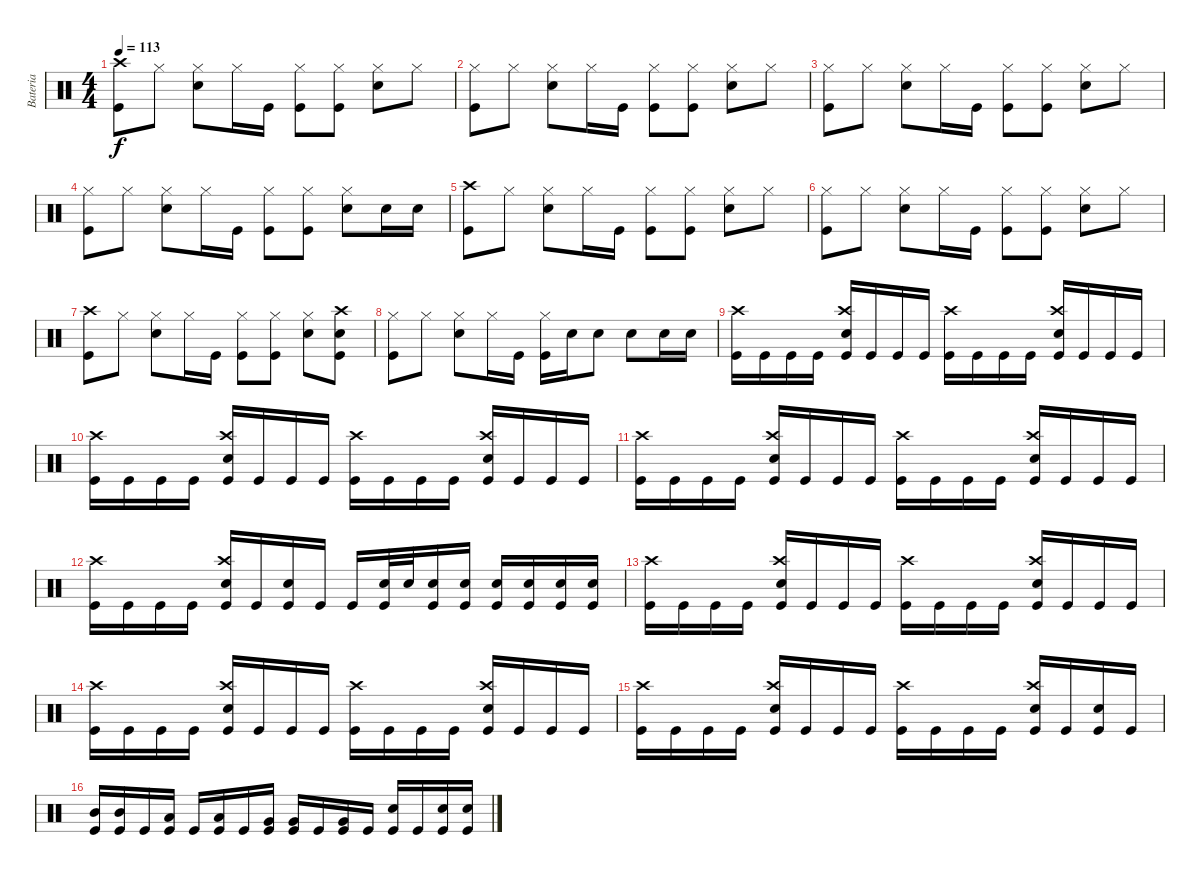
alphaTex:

\track ("Bateria" "Bateria") {instrument percussion}
\staff {score}
\articulation defaults
\ts (4 4)
\tempo 113
\clef neutral
\ks c
("Kick (hit)" "Crash high (hit)").8{dy f} "Hi-Hat (closed)".8 ("Hi-Hat (closed)" "Snare (hit) 2").8 "Hi-Hat (closed)".16 "Kick (hit)".16 ("Kick (hit)" "Hi-Hat (closed)").8 ("Kick (hit)" "Hi-Hat (closed)").8 ("Hi-Hat (closed)" "Snare (hit) 2").8 "Hi-Hat (closed)".8 |
("Kick (hit)" "Hi-Hat (closed)").8 "Hi-Hat (closed)".8 ("Hi-Hat (closed)" "Snare (hit) 2").8 "Hi-Hat (closed)".16 "Kick (hit)".16 ("Kick (hit)" "Hi-Hat (closed)").8 ("Kick (hit)" "Hi-Hat (closed)").8 ("Hi-Hat (closed)" "Snare (hit) 2").8 "Hi-Hat (closed)".8 |
("Kick (hit)" "Hi-Hat (closed)").8 "Hi-Hat (closed)".8 ("Hi-Hat (closed)" "Snare (hit) 2").8 "Hi-Hat (closed)".16 "Kick (hit)".16 ("Kick (hit)" "Hi-Hat (closed)").8 ("Kick (hit)" "Hi-Hat (closed)").8 ("Hi-Hat (closed)" "Snare (hit) 2").8 "Hi-Hat (closed)".8 |
("Kick (hit)" "Hi-Hat (closed)").8 "Hi-Hat (closed)".8 ("Hi-Hat (closed)" "Snare (hit) 2").8 "Hi-Hat (closed)".16 "Kick (hit)".16 ("Kick (hit)" "Hi-Hat (closed)").8 ("Kick (hit)" "Hi-Hat (closed)").8 ("Hi-Hat (closed)" "Snare (hit) 2").8 "Snare (hit) 2".16 "Snare (hit) 2".16 |
("Kick (hit)" "Crash high (hit)").8 "Hi-Hat (closed)".8 ("Hi-Hat (closed)" "Snare (hit) 2").8 "Hi-Hat (closed)".16 "Kick (hit)".16 ("Kick (hit)" "Hi-Hat (closed)").8 ("Kick (hit)" "Hi-Hat (closed)").8 ("Hi-Hat (closed)" "Snare (hit) 2").8 "Hi-Hat (closed)".8 |
("Kick (hit)" "Hi-Hat (closed)").8 "Hi-Hat (closed)".8 ("Hi-Hat (closed)" "Snare (hit) 2").8 "Hi-Hat (closed)".16 "Kick (hit)".16 ("Kick (hit)" "Hi-Hat (closed)").8 ("Kick (hit)" "Hi-Hat (closed)").8 ("Hi-Hat (closed)" "Snare (hit) 2").8 "Hi-Hat (closed)".8 |
("Kick (hit)" "Crash high (hit)").8 "Hi-Hat (closed)".8 ("Hi-Hat (closed)" "Snare (hit) 2").8 "Hi-Hat (closed)".16 "Kick (hit)".16 ("Kick (hit)" "Hi-Hat (closed)").8 ("Kick (hit)" "Hi-Hat (closed)").8 ("Hi-Hat (closed)" "Snare (hit) 2").8 ("Kick (hit)" "Crash high (hit)" "Snare (hit) 2").8 |
("Kick (hit)" "Hi-Hat (closed)").8 "Hi-Hat (closed)".8 ("Hi-Hat (closed)" "Snare (hit) 2").8 "Hi-Hat (closed)".16 "Kick (hit)".16 ("Kick (hit)" "Hi-Hat (closed)").16 "Snare (hit) 2".16 "Snare (hit) 2".8 "Snare (hit) 2".8 "Snare (hit) 2".16 "Snare (hit) 2".16 |
("Kick (hit)" "Crash high (hit)").16 "Kick (hit)".16 "Kick (hit)".16 "Kick (hit)".16 ("Kick (hit)" "Crash high (hit)" "Snare (hit) 2").16 "Kick (hit)".16 "Kick (hit)".16 "Kick (hit)".16 ("Kick (hit)" "Crash high (hit)").16 "Kick (hit)".16 "Kick (hit)".16 "Kick (hit)".16 ("Kick (hit)" "Crash high (hit)" "Snare (hit) 2").16 "Kick (hit)".16 "Kick (hit)".16 "Kick (hit)".16 |
("Kick (hit)" "Crash high (hit)").16 "Kick (hit)".16 "Kick (hit)".16 "Kick (hit)".16 ("Kick (hit)" "Crash high (hit)" "Snare (hit) 2").16 "Kick (hit)".16 "Kick (hit)".16 "Kick (hit)".16 ("Kick (hit)" "Crash high (hit)").16 "Kick (hit)".16 "Kick (hit)".16 "Kick (hit)".16 ("Kick (hit)" "Crash high (hit)" "Snare (hit) 2").16 "Kick (hit)".16 "Kick (hit)".16 "Kick (hit)".16 |
("Kick (hit)" "Crash high (hit)").16 "Kick (hit)".16 "Kick (hit)".16 "Kick (hit)".16 ("Kick (hit)" "Crash high (hit)" "Snare (hit) 2").16 "Kick (hit)".16 "Kick (hit)".16 "Kick (hit)".16 ("Kick (hit)" "Crash high (hit)").16 "Kick (hit)".16 "Kick (hit)".16 "Kick (hit)".16 ("Kick (hit)" "Crash high (hit)" "Snare (hit) 2").16 "Kick (hit)".16 "Kick (hit)".16 "Kick (hit)".16 |
("Kick (hit)" "Crash high (hit)").16 "Kick (hit)".16 "Kick (hit)".16 "Kick (hit)".16 ("Kick (hit)" "Crash high (hit)" "Snare (hit) 2").16 "Kick (hit)".16 ("Kick (hit)" "Snare (hit) 2").16 "Kick (hit)".16 "Kick (hit)".16 ("Kick (hit)" "Snare (hit) 2").32 "Snare (hit) 2".32 ("Kick (hit)" "Snare (hit) 2").16 ("Kick (hit)" "Snare (hit) 2").16 ("Kick (hit)" "Snare (hit) 2").16 ("Kick (hit)" "Snare (hit) 2").16 ("Kick (hit)" "Snare (hit) 2").16 ("Kick (hit)" "Snare (hit) 2").16 |
("Kick (hit)" "Crash high (hit)").16 "Kick (hit)".16 "Kick (hit)".16 "Kick (hit)".16 ("Kick (hit)" "Crash high (hit)" "Snare (hit) 2").16 "Kick (hit)".16 "Kick (hit)".16 "Kick (hit)".16 ("Kick (hit)" "Crash high (hit)").16 "Kick (hit)".16 "Kick (hit)".16 "Kick (hit)".16 ("Kick (hit)" "Crash high (hit)" "Snare (hit) 2").16 "Kick (hit)".16 "Kick (hit)".16 "Kick (hit)".16 |
("Kick (hit)" "Crash high (hit)").16 "Kick (hit)".16 "Kick (hit)".16 "Kick (hit)".16 ("Kick (hit)" "Crash high (hit)" "Snare (hit) 2").16 "Kick (hit)".16 "Kick (hit)".16 "Kick (hit)".16 ("Kick (hit)" "Crash high (hit)").16 "Kick (hit)".16 "Kick (hit)".16 "Kick (hit)".16 ("Kick (hit)" "Crash high (hit)" "Snare (hit) 2").16 "Kick (hit)".16 "Kick (hit)".16 "Kick (hit)".16 |
("Kick (hit)" "Crash high (hit)").16 "Kick (hit)".16 "Kick (hit)".16 "Kick (hit)".16 ("Kick (hit)" "Crash high (hit)" "Snare (hit) 2").16 "Kick (hit)".16 "Kick (hit)".16 "Kick (hit)".16 ("Kick (hit)" "Crash high (hit)").16 "Kick (hit)".16 "Kick (hit)".16 "Kick (hit)".16 ("Kick (hit)" "Crash high (hit)" "Snare (hit) 2").16 "Kick (hit)".16 ("Kick (hit)" "Snare (hit) 2").16 "Kick (hit)".16 |
("Kick (hit)" "Mid Tom (hit)").16 ("Kick (hit)" "Mid Tom (hit)").16 "Kick (hit)".16 ("Kick (hit)" "Low Tom (hit)").16 "Kick (hit)".16 ("Kick (hit)" "Low Tom (hit)").16 "Kick (hit)".16 ("Kick (hit)" "Very Low Tom (hit)").16 ("Kick (hit)" "Very Low Tom (hit)").16 "Kick (hit)".16 ("Kick (hit)" "Very Low Tom (hit)").16 "Kick (hit)".16 ("Kick (hit)" "Snare (hit) 2").16 "Kick (hit)".16 ("Kick (hit)" "Snare (hit) 2").16 ("Kick (hit)" "Snare (hit) 2").16
